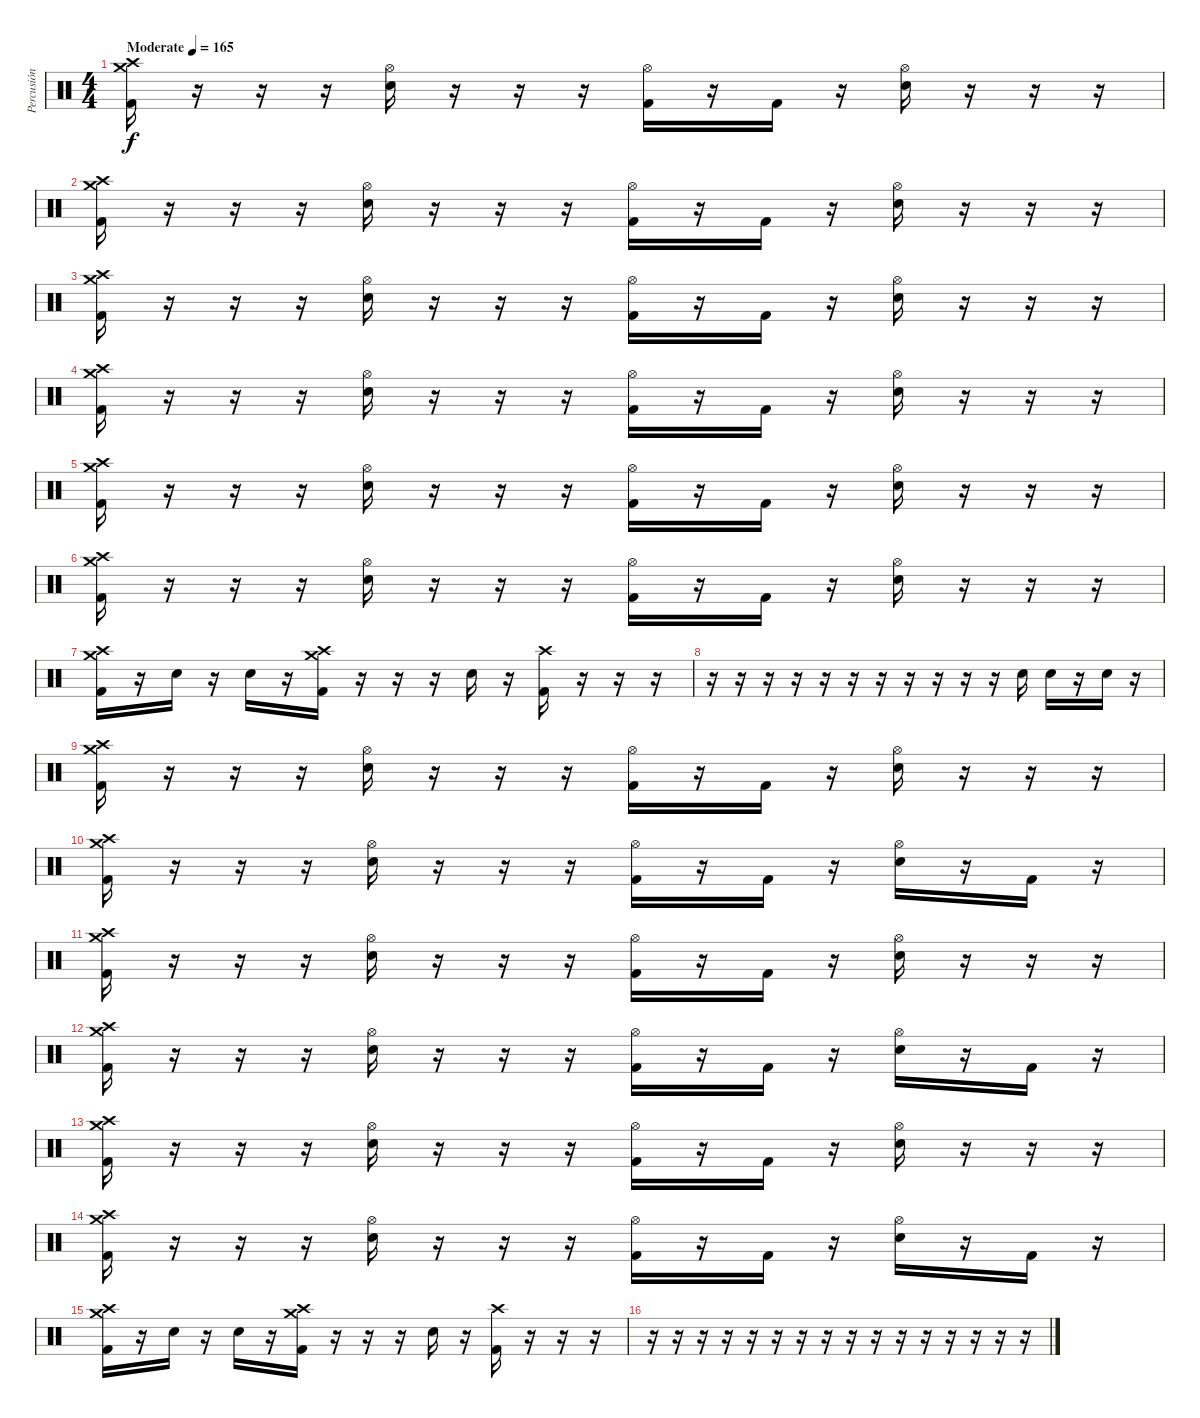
\track ("Percusión" "Percusión") {instrument percussion}
\staff {score}
\articulation defaults
\ts (4 4)
\tempo (165 "Moderate")
\clef neutral
\ks c
("Crash high (hit)" "Crash medium (hit)" "Kick (hit) 2").16{dy f} r.16 r.16 r.16 ("Hi-Hat (open)" "Electric Snare (hit)").16 r.16 r.16 r.16 ("Hi-Hat (open)" "Kick (hit) 2").16 r.16 "Kick (hit) 2".16 r.16 ("Hi-Hat (open)" "Electric Snare (hit)").16 r.16 r.16 r.16 |
("Crash high (hit)" "Crash medium (hit)" "Kick (hit) 2").16 r.16 r.16 r.16 ("Hi-Hat (open)" "Electric Snare (hit)").16 r.16 r.16 r.16 ("Hi-Hat (open)" "Kick (hit) 2").16 r.16 "Kick (hit) 2".16 r.16 ("Hi-Hat (open)" "Electric Snare (hit)").16 r.16 r.16 r.16 |
("Crash high (hit)" "Crash medium (hit)" "Kick (hit) 2").16 r.16 r.16 r.16 ("Hi-Hat (open)" "Electric Snare (hit)").16 r.16 r.16 r.16 ("Hi-Hat (open)" "Kick (hit) 2").16 r.16 "Kick (hit) 2".16 r.16 ("Hi-Hat (open)" "Electric Snare (hit)").16 r.16 r.16 r.16 |
("Crash high (hit)" "Crash medium (hit)" "Kick (hit) 2").16 r.16 r.16 r.16 ("Hi-Hat (open)" "Electric Snare (hit)").16 r.16 r.16 r.16 ("Hi-Hat (open)" "Kick (hit) 2").16 r.16 "Kick (hit) 2".16 r.16 ("Hi-Hat (open)" "Electric Snare (hit)").16 r.16 r.16 r.16 |
("Crash high (hit)" "Crash medium (hit)" "Kick (hit) 2").16 r.16 r.16 r.16 ("Hi-Hat (open)" "Electric Snare (hit)").16 r.16 r.16 r.16 ("Hi-Hat (open)" "Kick (hit) 2").16 r.16 "Kick (hit) 2".16 r.16 ("Hi-Hat (open)" "Electric Snare (hit)").16 r.16 r.16 r.16 |
("Crash high (hit)" "Crash medium (hit)" "Kick (hit) 2").16 r.16 r.16 r.16 ("Hi-Hat (open)" "Electric Snare (hit)").16 r.16 r.16 r.16 ("Hi-Hat (open)" "Kick (hit) 2").16 r.16 "Kick (hit) 2".16 r.16 ("Hi-Hat (open)" "Electric Snare (hit)").16 r.16 r.16 r.16 |
("Crash high (hit)" "Crash medium (hit)" "Kick (hit) 2").16 r.16 "Electric Snare (hit)".16 r.16 "Electric Snare (hit)".16 r.16 ("Crash high (hit)" "Crash medium (hit)" "Kick (hit) 2").16 r.16 r.16 r.16 "Electric Snare (hit)".16 r.16 ("Crash high (hit)" "Kick (hit) 2").16 r.16 r.16 r.16 |
r.16 r.16 r.16 r.16 r.16 r.16 r.16 r.16 r.16 r.16 r.16 "Electric Snare (hit)".16 "Electric Snare (hit)".16 r.16 "Electric Snare (hit)".16 r.16 |
("Crash high (hit)" "Crash medium (hit)" "Kick (hit) 2").16 r.16 r.16 r.16 ("Hi-Hat (open)" "Electric Snare (hit)").16 r.16 r.16 r.16 ("Hi-Hat (open)" "Kick (hit) 2").16 r.16 "Kick (hit) 2".16 r.16 ("Hi-Hat (open)" "Electric Snare (hit)").16 r.16 r.16 r.16 |
("Crash high (hit)" "Crash medium (hit)" "Kick (hit) 2").16 r.16 r.16 r.16 ("Hi-Hat (open)" "Electric Snare (hit)").16 r.16 r.16 r.16 ("Hi-Hat (open)" "Kick (hit) 2").16 r.16 "Kick (hit) 2".16 r.16 ("Hi-Hat (open)" "Electric Snare (hit)").16 r.16 "Kick (hit) 2".16 r.16 |
("Crash high (hit)" "Crash medium (hit)" "Kick (hit) 2").16 r.16 r.16 r.16 ("Hi-Hat (open)" "Electric Snare (hit)").16 r.16 r.16 r.16 ("Hi-Hat (open)" "Kick (hit) 2").16 r.16 "Kick (hit) 2".16 r.16 ("Hi-Hat (open)" "Electric Snare (hit)").16 r.16 r.16 r.16 |
("Crash high (hit)" "Crash medium (hit)" "Kick (hit) 2").16 r.16 r.16 r.16 ("Hi-Hat (open)" "Electric Snare (hit)").16 r.16 r.16 r.16 ("Hi-Hat (open)" "Kick (hit) 2").16 r.16 "Kick (hit) 2".16 r.16 ("Hi-Hat (open)" "Electric Snare (hit)").16 r.16 "Kick (hit) 2".16 r.16 |
("Crash high (hit)" "Crash medium (hit)" "Kick (hit) 2").16 r.16 r.16 r.16 ("Hi-Hat (open)" "Electric Snare (hit)").16 r.16 r.16 r.16 ("Hi-Hat (open)" "Kick (hit) 2").16 r.16 "Kick (hit) 2".16 r.16 ("Hi-Hat (open)" "Electric Snare (hit)").16 r.16 r.16 r.16 |
("Crash high (hit)" "Crash medium (hit)" "Kick (hit) 2").16 r.16 r.16 r.16 ("Hi-Hat (open)" "Electric Snare (hit)").16 r.16 r.16 r.16 ("Hi-Hat (open)" "Kick (hit) 2").16 r.16 "Kick (hit) 2".16 r.16 ("Hi-Hat (open)" "Electric Snare (hit)").16 r.16 "Kick (hit) 2".16 r.16 |
("Crash high (hit)" "Crash medium (hit)" "Kick (hit) 2").16 r.16 "Electric Snare (hit)".16 r.16 "Electric Snare (hit)".16 r.16 ("Crash high (hit)" "Crash medium (hit)" "Kick (hit) 2").16 r.16 r.16 r.16 "Electric Snare (hit)".16 r.16 ("Crash high (hit)" "Kick (hit) 2").16 r.16 r.16 r.16 |
r.16 r.16 r.16 r.16 r.16 r.16 r.16 r.16 r.16 r.16 r.16 r.16 r.16 r.16 r.16 r.16
